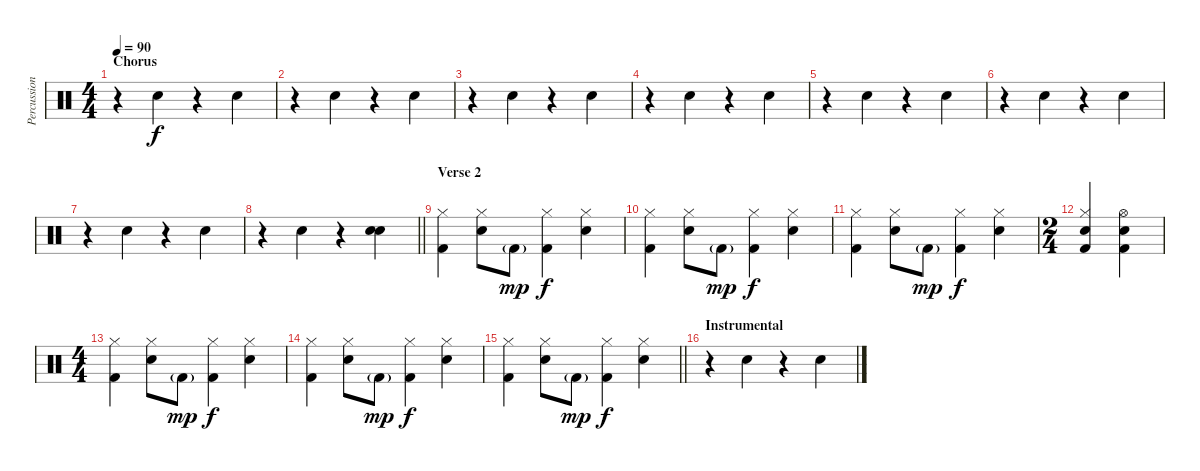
\track ("Percussion" "Percussion") {instrument percussion}
\staff {score}
\articulation defaults
\ts (4 4)
\section ("" "Chorus")
\tempo 90
\clef neutral
\ks c
r.4{dy f} "Hand Clap (hit)".4 r.4 "Hand Clap (hit)".4 |
r.4 "Hand Clap (hit)".4 r.4 "Hand Clap (hit)".4 |
r.4 "Hand Clap (hit)".4 r.4 "Hand Clap (hit)".4 |
r.4 "Hand Clap (hit)".4 r.4 "Hand Clap (hit)".4 |
r.4 "Hand Clap (hit)".4 r.4 "Hand Clap (hit)".4 |
r.4 "Hand Clap (hit)".4 r.4 "Hand Clap (hit)".4 |
r.4 "Hand Clap (hit)".4 r.4 "Hand Clap (hit)".4 |
\barLineRight lightlight
r.4 "Hand Clap (hit)".4 r.4 ("Hand Clap (hit)" "Snare (hit) 2").4 |
\section ("" "Verse 2")
("Hi-Hat (closed)" "Kick (hit) 2").4 ("Hi-Hat (closed)" "Snare (hit) 2").8 "Kick (hit) 2"{g}.8{dy mp} ("Hi-Hat (closed)" "Kick (hit) 2").4{dy f} ("Hi-Hat (closed)" "Snare (hit) 2").4 |
("Hi-Hat (closed)" "Kick (hit) 2").4 ("Hi-Hat (closed)" "Snare (hit) 2").8 "Kick (hit) 2"{g}.8{dy mp} ("Hi-Hat (closed)" "Kick (hit) 2").4{dy f} ("Hi-Hat (closed)" "Snare (hit) 2").4 |
("Hi-Hat (closed)" "Kick (hit) 2").4 ("Hi-Hat (closed)" "Snare (hit) 2").8 "Kick (hit) 2"{g}.8{dy mp} ("Hi-Hat (closed)" "Kick (hit) 2").4{dy f} ("Hi-Hat (closed)" "Snare (hit) 2").4 |
\ts (2 4)
("Hi-Hat (closed)" "Snare (hit) 2" "Kick (hit) 2").4 ("Hi-Hat (open)" "Snare (hit) 2" "Kick (hit) 2").4 |
\ts (4 4)
("Hi-Hat (closed)" "Kick (hit) 2").4 ("Hi-Hat (closed)" "Snare (hit) 2").8 "Kick (hit) 2"{g}.8{dy mp} ("Hi-Hat (closed)" "Kick (hit) 2").4{dy f} ("Hi-Hat (closed)" "Snare (hit) 2").4 |
("Hi-Hat (closed)" "Kick (hit) 2").4 ("Hi-Hat (closed)" "Snare (hit) 2").8 "Kick (hit) 2"{g}.8{dy mp} ("Hi-Hat (closed)" "Kick (hit) 2").4{dy f} ("Hi-Hat (closed)" "Snare (hit) 2").4 |
\barLineRight lightlight
("Hi-Hat (closed)" "Kick (hit) 2").4 ("Hi-Hat (closed)" "Snare (hit) 2").8 "Kick (hit) 2"{g}.8{dy mp} ("Hi-Hat (closed)" "Kick (hit) 2").4{dy f} ("Hi-Hat (closed)" "Snare (hit) 2").4 |
\section ("" "Instrumental")
r.4 "Hand Clap (hit)".4 r.4 "Hand Clap (hit)".4
